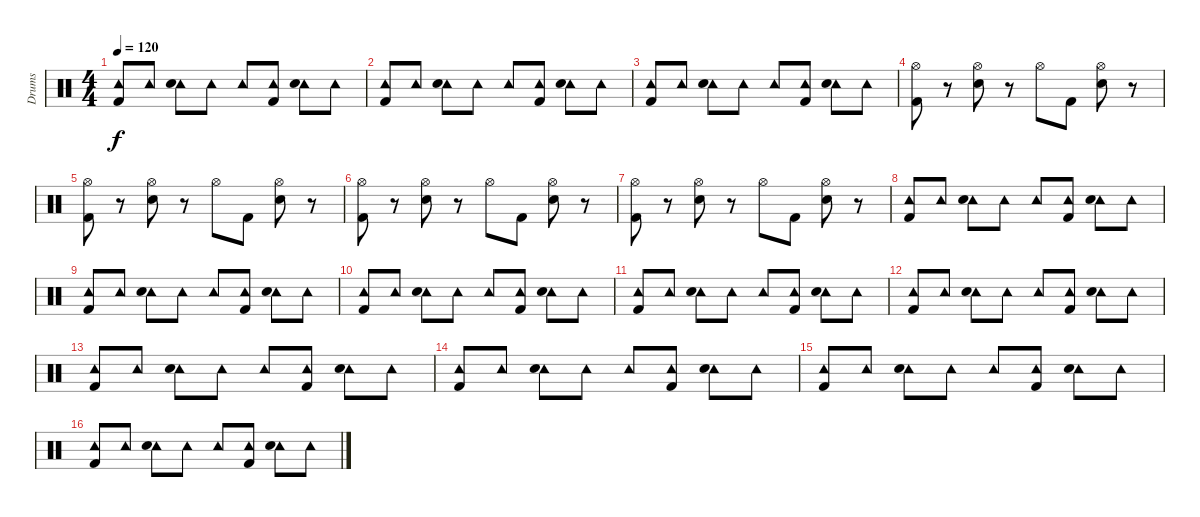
\track ("Drums" "Drums") {instrument percussion}
\staff {score}
\articulation defaults
\ts (4 4)
\tempo 120
\clef neutral
\ks c
("Tambourine (hit)" "Kick (hit) 2").8{dy f} "Tambourine (hit)".8 ("Tambourine (hit)" "Hand Clap (hit)").8 "Tambourine (hit)".8 "Tambourine (hit)".8 ("Tambourine (hit)" "Kick (hit) 2").8 ("Tambourine (hit)" "Hand Clap (hit)").8 "Tambourine (hit)".8 |
("Tambourine (hit)" "Kick (hit) 2").8 "Tambourine (hit)".8 ("Tambourine (hit)" "Hand Clap (hit)").8 "Tambourine (hit)".8 "Tambourine (hit)".8 ("Tambourine (hit)" "Kick (hit) 2").8 ("Tambourine (hit)" "Hand Clap (hit)").8 "Tambourine (hit)".8 |
("Tambourine (hit)" "Kick (hit) 2").8 "Tambourine (hit)".8 ("Tambourine (hit)" "Hand Clap (hit)").8 "Tambourine (hit)".8 "Tambourine (hit)".8 ("Tambourine (hit)" "Kick (hit) 2").8 ("Tambourine (hit)" "Hand Clap (hit)").8 "Tambourine (hit)".8 |
("Hi-Hat (open)" "Kick (hit) 2").8 r.8 ("Hi-Hat (open)" "Hand Clap (hit)").8 r.8 "Hi-Hat (open)".8 "Kick (hit) 2".8 ("Hi-Hat (open)" "Hand Clap (hit)").8 r.8 |
("Hi-Hat (open)" "Kick (hit) 2").8 r.8 ("Hi-Hat (open)" "Hand Clap (hit)").8 r.8 "Hi-Hat (open)".8 "Kick (hit) 2".8 ("Hi-Hat (open)" "Hand Clap (hit)").8 r.8 |
("Hi-Hat (open)" "Kick (hit) 2").8 r.8 ("Hi-Hat (open)" "Hand Clap (hit)").8 r.8 "Hi-Hat (open)".8 "Kick (hit) 2".8 ("Hi-Hat (open)" "Hand Clap (hit)").8 r.8 |
("Hi-Hat (open)" "Kick (hit) 2").8 r.8 ("Hi-Hat (open)" "Hand Clap (hit)").8 r.8 "Hi-Hat (open)".8 "Kick (hit) 2".8 ("Hi-Hat (open)" "Hand Clap (hit)").8 r.8 |
("Tambourine (hit)" "Kick (hit) 2").8 "Tambourine (hit)".8 ("Tambourine (hit)" "Hand Clap (hit)").8 "Tambourine (hit)".8 "Tambourine (hit)".8 ("Tambourine (hit)" "Kick (hit) 2").8 ("Tambourine (hit)" "Hand Clap (hit)").8 "Tambourine (hit)".8 |
("Tambourine (hit)" "Kick (hit) 2").8 "Tambourine (hit)".8 ("Tambourine (hit)" "Hand Clap (hit)").8 "Tambourine (hit)".8 "Tambourine (hit)".8 ("Tambourine (hit)" "Kick (hit) 2").8 ("Tambourine (hit)" "Hand Clap (hit)").8 "Tambourine (hit)".8 |
("Tambourine (hit)" "Kick (hit) 2").8 "Tambourine (hit)".8 ("Tambourine (hit)" "Hand Clap (hit)").8 "Tambourine (hit)".8 "Tambourine (hit)".8 ("Tambourine (hit)" "Kick (hit) 2").8 ("Tambourine (hit)" "Hand Clap (hit)").8 "Tambourine (hit)".8 |
("Tambourine (hit)" "Kick (hit) 2").8 "Tambourine (hit)".8 ("Tambourine (hit)" "Hand Clap (hit)").8 "Tambourine (hit)".8 "Tambourine (hit)".8 ("Tambourine (hit)" "Kick (hit) 2").8 ("Tambourine (hit)" "Hand Clap (hit)").8 "Tambourine (hit)".8 |
("Tambourine (hit)" "Kick (hit) 2").8 "Tambourine (hit)".8 ("Tambourine (hit)" "Hand Clap (hit)").8 "Tambourine (hit)".8 "Tambourine (hit)".8 ("Tambourine (hit)" "Kick (hit) 2").8 ("Tambourine (hit)" "Hand Clap (hit)").8 "Tambourine (hit)".8 |
("Tambourine (hit)" "Kick (hit) 2").8 "Tambourine (hit)".8 ("Tambourine (hit)" "Hand Clap (hit)").8 "Tambourine (hit)".8 "Tambourine (hit)".8 ("Tambourine (hit)" "Kick (hit) 2").8 ("Tambourine (hit)" "Hand Clap (hit)").8 "Tambourine (hit)".8 |
("Tambourine (hit)" "Kick (hit) 2").8 "Tambourine (hit)".8 ("Tambourine (hit)" "Hand Clap (hit)").8 "Tambourine (hit)".8 "Tambourine (hit)".8 ("Tambourine (hit)" "Kick (hit) 2").8 ("Tambourine (hit)" "Hand Clap (hit)").8 "Tambourine (hit)".8 |
("Tambourine (hit)" "Kick (hit) 2").8 "Tambourine (hit)".8 ("Tambourine (hit)" "Hand Clap (hit)").8 "Tambourine (hit)".8 "Tambourine (hit)".8 ("Tambourine (hit)" "Kick (hit) 2").8 ("Tambourine (hit)" "Hand Clap (hit)").8 "Tambourine (hit)".8 |
("Tambourine (hit)" "Kick (hit) 2").8 "Tambourine (hit)".8 ("Tambourine (hit)" "Hand Clap (hit)").8 "Tambourine (hit)".8 "Tambourine (hit)".8 ("Tambourine (hit)" "Kick (hit) 2").8 ("Tambourine (hit)" "Hand Clap (hit)").8 "Tambourine (hit)".8
